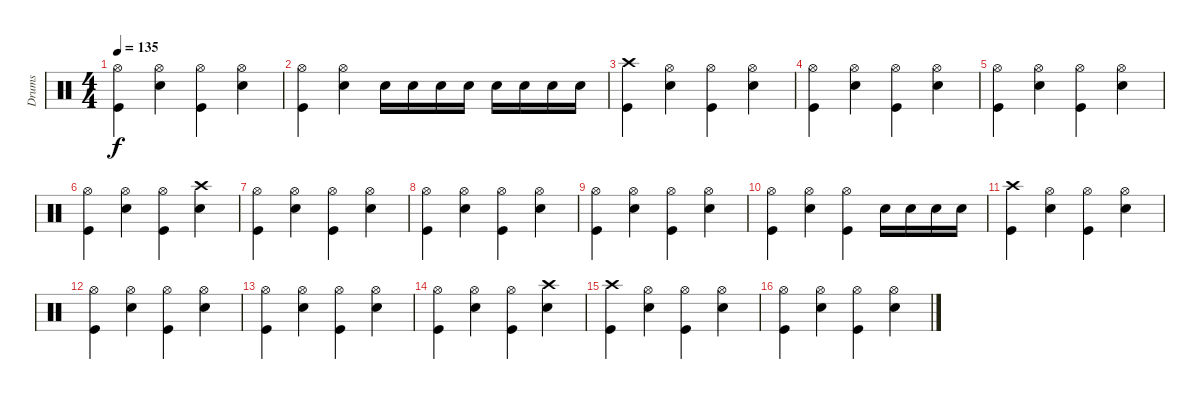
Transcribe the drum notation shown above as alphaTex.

\track ("Drums" "Drums") {instrument percussion}
\staff {score}
\articulation defaults
\ts (4 4)
\tempo 135
\clef neutral
\ks c
("Hi-Hat (open)" "Kick (hit)").4{dy f} ("Hi-Hat (open)" "Snare (hit) 2").4 ("Hi-Hat (open)" "Kick (hit)").4 ("Hi-Hat (open)" "Snare (hit) 2").4 |
("Hi-Hat (open)" "Kick (hit)").4 ("Hi-Hat (open)" "Snare (hit) 2").4 "Snare (hit) 2".16 "Snare (hit) 2".16 "Snare (hit) 2".16 "Snare (hit) 2".16 "Snare (hit) 2".16 "Snare (hit) 2".16 "Snare (hit) 2".16 "Snare (hit) 2".16 |
("Crash high (hit)" "Kick (hit)").4 ("Hi-Hat (open)" "Snare (hit) 2").4 ("Hi-Hat (open)" "Kick (hit)").4 ("Hi-Hat (open)" "Snare (hit) 2").4 |
("Hi-Hat (open)" "Kick (hit)").4 ("Hi-Hat (open)" "Snare (hit) 2").4 ("Hi-Hat (open)" "Kick (hit)").4 ("Hi-Hat (open)" "Snare (hit) 2").4 |
("Hi-Hat (open)" "Kick (hit)").4 ("Hi-Hat (open)" "Snare (hit) 2").4 ("Hi-Hat (open)" "Kick (hit)").4 ("Hi-Hat (open)" "Snare (hit) 2").4 |
("Hi-Hat (open)" "Kick (hit)").4 ("Hi-Hat (open)" "Snare (hit) 2").4 ("Hi-Hat (open)" "Kick (hit)").4 ("Crash high (hit)" "Snare (hit) 2").4 |
("Hi-Hat (open)" "Kick (hit)").4 ("Hi-Hat (open)" "Snare (hit) 2").4 ("Hi-Hat (open)" "Kick (hit)").4 ("Hi-Hat (open)" "Snare (hit) 2").4 |
("Hi-Hat (open)" "Kick (hit)").4 ("Hi-Hat (open)" "Snare (hit) 2").4 ("Hi-Hat (open)" "Kick (hit)").4 ("Hi-Hat (open)" "Snare (hit) 2").4 |
("Hi-Hat (open)" "Kick (hit)").4 ("Hi-Hat (open)" "Snare (hit) 2").4 ("Hi-Hat (open)" "Kick (hit)").4 ("Hi-Hat (open)" "Snare (hit) 2").4 |
("Hi-Hat (open)" "Kick (hit)").4 ("Hi-Hat (open)" "Snare (hit) 2").4 ("Hi-Hat (open)" "Kick (hit)").4 "Snare (hit) 2".16 "Snare (hit) 2".16 "Snare (hit) 2".16 "Snare (hit) 2".16 |
("Crash high (hit)" "Kick (hit)").4 ("Hi-Hat (open)" "Snare (hit) 2").4 ("Hi-Hat (open)" "Kick (hit)").4 ("Hi-Hat (open)" "Snare (hit) 2").4 |
("Hi-Hat (open)" "Kick (hit)").4 ("Hi-Hat (open)" "Snare (hit) 2").4 ("Hi-Hat (open)" "Kick (hit)").4 ("Hi-Hat (open)" "Snare (hit) 2").4 |
("Hi-Hat (open)" "Kick (hit)").4 ("Hi-Hat (open)" "Snare (hit) 2").4 ("Hi-Hat (open)" "Kick (hit)").4 ("Hi-Hat (open)" "Snare (hit) 2").4 |
("Hi-Hat (open)" "Kick (hit)").4 ("Hi-Hat (open)" "Snare (hit) 2").4 ("Hi-Hat (open)" "Kick (hit)").4 ("Crash high (hit)" "Snare (hit) 2").4 |
("Crash high (hit)" "Kick (hit)").4 ("Hi-Hat (open)" "Snare (hit) 2").4 ("Hi-Hat (open)" "Kick (hit)").4 ("Hi-Hat (open)" "Snare (hit) 2").4 |
("Hi-Hat (open)" "Kick (hit)").4 ("Hi-Hat (open)" "Snare (hit) 2").4 ("Hi-Hat (open)" "Kick (hit)").4 ("Hi-Hat (open)" "Snare (hit) 2").4
